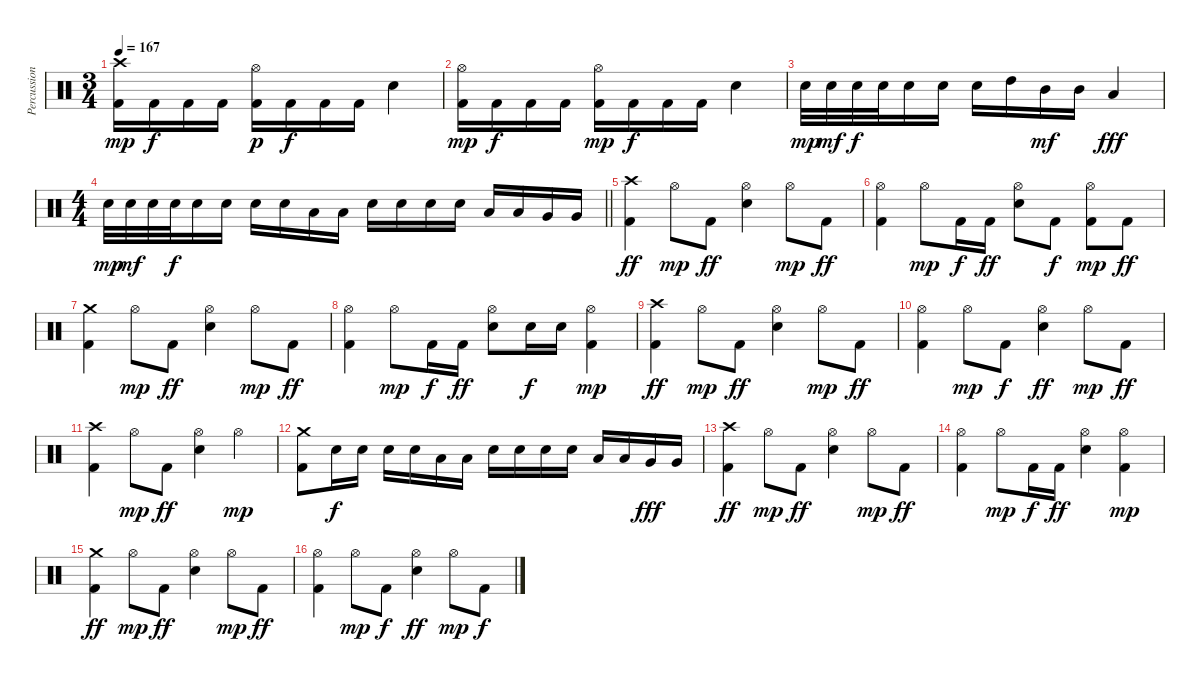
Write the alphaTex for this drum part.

\track ("Percussion" "Percussion") {instrument percussion}
\staff {score}
\articulation defaults
\ts (3 4)
\tempo 167
\clef neutral
\ks c
("Crash high (hit)" "Kick (hit) 2").16{dy mp} "Kick (hit) 2".16{dy f} "Kick (hit) 2".16 "Kick (hit) 2".16 ("Hi-Hat (open)" "Kick (hit) 2").16{dy p} "Kick (hit) 2".16{dy f} "Kick (hit) 2".16 "Kick (hit) 2".16 "Snare (hit) 2".4 |
("Hi-Hat (open)" "Kick (hit) 2").16{dy mp} "Kick (hit) 2".16{dy f} "Kick (hit) 2".16 "Kick (hit) 2".16 ("Hi-Hat (open)" "Kick (hit) 2").16{dy mp} "Kick (hit) 2".16{dy f} "Kick (hit) 2".16 "Kick (hit) 2".16 "Snare (hit) 2".4 |
"Snare (hit) 2".32{dy mp} "Snare (hit) 2".32{dy mf} "Snare (hit) 2".32{dy f} "Snare (hit) 2".32 "Snare (hit) 2".16 "Snare (hit) 2".16 "Snare (hit) 2".16 "High Tom (hit)".16 "Mid Tom (hit)".16{dy mf} "Mid Tom (hit)".16 "Low Tom (hit)".4{dy fff} |
\ts (4 4)
\barLineRight lightlight "Snare (hit) 2".32{dy mp} "Snare (hit) 2".32{dy mf} "Snare (hit) 2".32 "Snare (hit) 2".32{dy f} "Snare (hit) 2".16 "Snare (hit) 2".16 "Snare (hit) 2".16 "Snare (hit) 2".16 "Low Tom (hit)".16 "Low Tom (hit)".16 "Snare (hit) 2".16 "Snare (hit) 2".16 "Snare (hit) 2".16 "Snare (hit) 2".16 "Low Tom (hit)".16 "Low Tom (hit)".16 "Very Low Tom (hit)".16 "Very Low Tom (hit)".16
|
("Crash high (hit)" "Kick (hit) 2").4{dy ff} "Hi-Hat (open)".8{dy mp} "Kick (hit) 2".8{dy ff} ("Hi-Hat (open)" "Snare (hit) 2").4 "Hi-Hat (open)".8{dy mp} "Kick (hit) 2".8{dy ff} |
("Hi-Hat (open)" "Kick (hit) 2").4 "Hi-Hat (open)".8{dy mp} "Kick (hit) 2".16{dy f} "Kick (hit) 2".16{dy ff} ("Hi-Hat (open)" "Snare (hit) 2").8 "Kick (hit) 2".8{dy f} ("Hi-Hat (open)" "Kick (hit) 2").8{dy mp} "Kick (hit) 2".8{dy ff} |
("Crash medium (hit)" "Kick (hit) 2").4 "Hi-Hat (open)".8{dy mp} "Kick (hit) 2".8{dy ff} ("Hi-Hat (open)" "Snare (hit) 2").4 "Hi-Hat (open)".8{dy mp} "Kick (hit) 2".8{dy ff} |
("Hi-Hat (open)" "Kick (hit) 2").4 "Hi-Hat (open)".8{dy mp} "Kick (hit) 2".16{dy f} "Kick (hit) 2".16{dy ff} ("Hi-Hat (open)" "Snare (hit) 2").8 "Snare (hit) 2".16{dy f} "Snare (hit) 2".16 ("Hi-Hat (open)" "Kick (hit) 2").4{dy mp} |
("Crash high (hit)" "Kick (hit) 2").4{dy ff} "Hi-Hat (open)".8{dy mp} "Kick (hit) 2".8{dy ff} ("Hi-Hat (open)" "Snare (hit) 2").4 "Hi-Hat (open)".8{dy mp} "Kick (hit) 2".8{dy ff} |
("Hi-Hat (open)" "Kick (hit) 2").4 "Hi-Hat (open)".8{dy mp} "Kick (hit) 2".8{dy f} ("Hi-Hat (open)" "Snare (hit) 2").4{dy ff} "Hi-Hat (open)".8{dy mp} "Kick (hit) 2".8{dy ff} |
("Crash high (hit)" "Kick (hit) 2").4 "Hi-Hat (open)".8{dy mp} "Kick (hit) 2".8{dy ff} ("Hi-Hat (open)" "Snare (hit) 2").4 "Hi-Hat (open)".4{dy mp} |
("Crash medium (hit)" "Kick (hit) 2").8 "Snare (hit) 2".16{dy f} "Snare (hit) 2".16 "Snare (hit) 2".16 "Snare (hit) 2".16 "Low Tom (hit)".16 "Low Tom (hit)".16 "Snare (hit) 2".16 "Snare (hit) 2".16 "Snare (hit) 2".16 "Snare (hit) 2".16 "Low Tom (hit)".16 "Low Tom (hit)".16 "Very Low Tom (hit)".16{dy fff} "Very Low Tom (hit)".16 |
("Crash high (hit)" "Kick (hit) 2").4{dy ff} "Hi-Hat (open)".8{dy mp} "Kick (hit) 2".8{dy ff} ("Hi-Hat (open)" "Snare (hit) 2").4 "Hi-Hat (open)".8{dy mp} "Kick (hit) 2".8{dy ff} |
("Hi-Hat (open)" "Kick (hit) 2").4 "Hi-Hat (open)".8{dy mp} "Kick (hit) 2".16{dy f} "Kick (hit) 2".16{dy ff} ("Hi-Hat (open)" "Snare (hit) 2").4 ("Hi-Hat (open)" "Kick (hit) 2").4{dy mp} |
("Crash medium (hit)" "Kick (hit) 2").4{dy ff} "Hi-Hat (open)".8{dy mp} "Kick (hit) 2".8{dy ff} ("Hi-Hat (open)" "Snare (hit) 2").4 "Hi-Hat (open)".8{dy mp} "Kick (hit) 2".8{dy ff} |
("Hi-Hat (open)" "Kick (hit) 2").4 "Hi-Hat (open)".8{dy mp} "Kick (hit) 2".8{dy f} ("Hi-Hat (open)" "Snare (hit) 2").4{dy ff} "Hi-Hat (open)".8{dy mp} "Kick (hit) 2".8{dy f}
